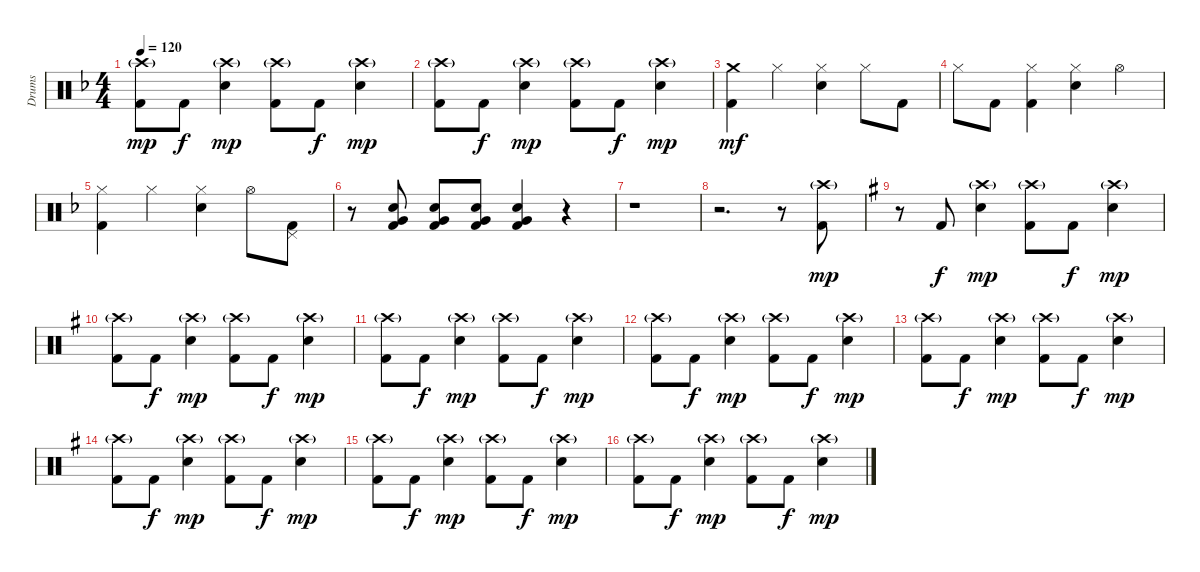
\track ("Drums" "Drums") {instrument percussion}
\staff {score}
\articulation defaults
\ts (4 4)
\tempo 120
\clef neutral
\ks dminor
("Crash high (hit)"{g} "Kick (hit) 2").8{dy mp} "Kick (hit) 2".8{dy f} ("Crash high (hit)"{g} "Snare (hit) 2").4{dy mp} ("Crash high (hit)"{g} "Kick (hit) 2").8 "Kick (hit) 2".8{dy f} ("Crash high (hit)"{g} "Snare (hit) 2").4{dy mp} |
("Crash high (hit)"{g} "Kick (hit) 2").8 "Kick (hit) 2".8{dy f} ("Crash high (hit)"{g} "Snare (hit) 2").4{dy mp} ("Crash high (hit)"{g} "Kick (hit) 2").8 "Kick (hit) 2".8{dy f} ("Crash high (hit)"{g} "Snare (hit) 2").4{dy mp} |
("Crash medium (hit)" "Kick (hit) 2").4{dy mf} "Hi-Hat (closed)".4 ("Hi-Hat (closed)" "Snare (hit) 2").4 "Hi-Hat (closed)".8 "Kick (hit) 2".8 |
"Hi-Hat (closed)".8 "Kick (hit) 2".8 ("Hi-Hat (closed)" "Kick (hit) 2").4 ("Hi-Hat (closed)" "Snare (hit) 2").4 "Hi-Hat (open)".4 |
("Hi-Hat (closed)" "Kick (hit) 2").4 "Hi-Hat (closed)".4 ("Hi-Hat (closed)" "Snare (hit) 2").4 "Hi-Hat (open)".8 ("Pedal Hi-Hat (hit)" "Kick (hit) 2").8 |
r.8 ("Snare (hit) 2" "Very Low Tom (hit)" "Kick (hit) 2").8 ("Snare (hit) 2" "Very Low Tom (hit)" "Kick (hit) 2").8 ("Snare (hit) 2" "Very Low Tom (hit)" "Kick (hit) 2").8 ("Snare (hit) 2" "Very Low Tom (hit)" "Kick (hit) 2").4 r.4 |
r.1 |
r.2{d} r.8 ("Crash high (hit)"{g} "Kick (hit) 2").8{dy mp} |
\ks eminor
r.8 "Kick (hit) 2".8{dy f} ("Crash high (hit)"{g} "Snare (hit) 2").4{dy mp} ("Crash high (hit)"{g} "Kick (hit) 2").8 "Kick (hit) 2".8{dy f} ("Crash high (hit)"{g} "Snare (hit) 2").4{dy mp} |
("Crash high (hit)"{g} "Kick (hit) 2").8 "Kick (hit) 2".8{dy f} ("Crash high (hit)"{g} "Snare (hit) 2").4{dy mp} ("Crash high (hit)"{g} "Kick (hit) 2").8 "Kick (hit) 2".8{dy f} ("Crash high (hit)"{g} "Snare (hit) 2").4{dy mp} |
("Crash high (hit)"{g} "Kick (hit) 2").8 "Kick (hit) 2".8{dy f} ("Crash high (hit)"{g} "Snare (hit) 2").4{dy mp} ("Crash high (hit)"{g} "Kick (hit) 2").8 "Kick (hit) 2".8{dy f} ("Crash high (hit)"{g} "Snare (hit) 2").4{dy mp} |
("Crash high (hit)"{g} "Kick (hit) 2").8 "Kick (hit) 2".8{dy f} ("Crash high (hit)"{g} "Snare (hit) 2").4{dy mp} ("Crash high (hit)"{g} "Kick (hit) 2").8 "Kick (hit) 2".8{dy f} ("Crash high (hit)"{g} "Snare (hit) 2").4{dy mp} |
("Crash high (hit)"{g} "Kick (hit) 2").8 "Kick (hit) 2".8{dy f} ("Crash high (hit)"{g} "Snare (hit) 2").4{dy mp} ("Crash high (hit)"{g} "Kick (hit) 2").8 "Kick (hit) 2".8{dy f} ("Crash high (hit)"{g} "Snare (hit) 2").4{dy mp} |
("Crash high (hit)"{g} "Kick (hit) 2").8 "Kick (hit) 2".8{dy f} ("Crash high (hit)"{g} "Snare (hit) 2").4{dy mp} ("Crash high (hit)"{g} "Kick (hit) 2").8 "Kick (hit) 2".8{dy f} ("Crash high (hit)"{g} "Snare (hit) 2").4{dy mp} |
("Crash high (hit)"{g} "Kick (hit) 2").8 "Kick (hit) 2".8{dy f} ("Crash high (hit)"{g} "Snare (hit) 2").4{dy mp} ("Crash high (hit)"{g} "Kick (hit) 2").8 "Kick (hit) 2".8{dy f} ("Crash high (hit)"{g} "Snare (hit) 2").4{dy mp} |
("Crash high (hit)"{g} "Kick (hit) 2").8 "Kick (hit) 2".8{dy f} ("Crash high (hit)"{g} "Snare (hit) 2").4{dy mp} ("Crash high (hit)"{g} "Kick (hit) 2").8 "Kick (hit) 2".8{dy f} ("Crash high (hit)"{g} "Snare (hit) 2").4{dy mp}
